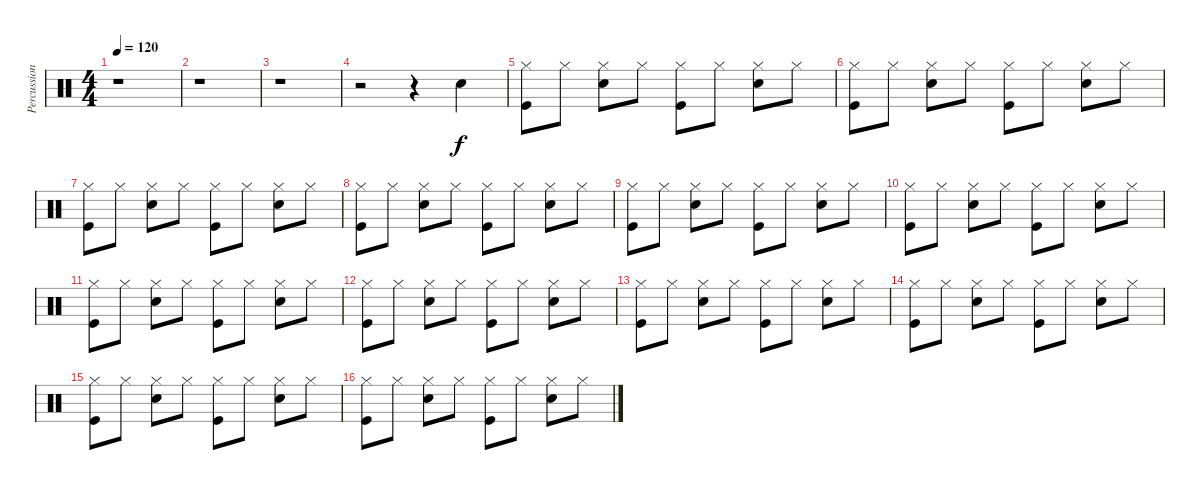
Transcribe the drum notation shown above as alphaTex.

\track ("Percussions" "Percussion") {instrument percussion}
\staff {score}
\articulation defaults
\ts (4 4)
\tempo 120
\clef neutral
\ks c
r.1{dy f} |
r.1 |
r.1 |
r.2 r.4 "Electric Snare (hit)".4 |
("Hi-Hat (closed)" "Kick (hit)").8 "Hi-Hat (closed)".8 ("Hi-Hat (closed)" "Electric Snare (hit)").8 "Hi-Hat (closed)".8 ("Hi-Hat (closed)" "Kick (hit)").8 "Hi-Hat (closed)".8 ("Hi-Hat (closed)" "Electric Snare (hit)").8 "Hi-Hat (closed)".8 |
("Hi-Hat (closed)" "Kick (hit)").8 "Hi-Hat (closed)".8 ("Hi-Hat (closed)" "Electric Snare (hit)").8 "Hi-Hat (closed)".8 ("Hi-Hat (closed)" "Kick (hit)").8 "Hi-Hat (closed)".8 ("Hi-Hat (closed)" "Electric Snare (hit)").8 "Hi-Hat (closed)".8 |
("Hi-Hat (closed)" "Kick (hit)").8 "Hi-Hat (closed)".8 ("Hi-Hat (closed)" "Electric Snare (hit)").8 "Hi-Hat (closed)".8 ("Hi-Hat (closed)" "Kick (hit)").8 "Hi-Hat (closed)".8 ("Hi-Hat (closed)" "Electric Snare (hit)").8 "Hi-Hat (closed)".8 |
("Hi-Hat (closed)" "Kick (hit)").8 "Hi-Hat (closed)".8 ("Hi-Hat (closed)" "Electric Snare (hit)").8 "Hi-Hat (closed)".8 ("Hi-Hat (closed)" "Kick (hit)").8 "Hi-Hat (closed)".8 ("Hi-Hat (closed)" "Electric Snare (hit)").8 "Hi-Hat (closed)".8 |
("Hi-Hat (closed)" "Kick (hit)").8 "Hi-Hat (closed)".8 ("Hi-Hat (closed)" "Electric Snare (hit)").8 "Hi-Hat (closed)".8 ("Hi-Hat (closed)" "Kick (hit)").8 "Hi-Hat (closed)".8 ("Hi-Hat (closed)" "Electric Snare (hit)").8 "Hi-Hat (closed)".8 |
("Hi-Hat (closed)" "Kick (hit)").8 "Hi-Hat (closed)".8 ("Hi-Hat (closed)" "Electric Snare (hit)").8 "Hi-Hat (closed)".8 ("Hi-Hat (closed)" "Kick (hit)").8 "Hi-Hat (closed)".8 ("Hi-Hat (closed)" "Electric Snare (hit)").8 "Hi-Hat (closed)".8 |
("Hi-Hat (closed)" "Kick (hit)").8 "Hi-Hat (closed)".8 ("Hi-Hat (closed)" "Electric Snare (hit)").8 "Hi-Hat (closed)".8 ("Hi-Hat (closed)" "Kick (hit)").8 "Hi-Hat (closed)".8 ("Hi-Hat (closed)" "Electric Snare (hit)").8 "Hi-Hat (closed)".8 |
("Hi-Hat (closed)" "Kick (hit)").8 "Hi-Hat (closed)".8 ("Hi-Hat (closed)" "Electric Snare (hit)").8 "Hi-Hat (closed)".8 ("Hi-Hat (closed)" "Kick (hit)").8 "Hi-Hat (closed)".8 ("Hi-Hat (closed)" "Electric Snare (hit)").8 "Hi-Hat (closed)".8 |
("Hi-Hat (closed)" "Kick (hit)").8 "Hi-Hat (closed)".8 ("Hi-Hat (closed)" "Electric Snare (hit)").8 "Hi-Hat (closed)".8 ("Hi-Hat (closed)" "Kick (hit)").8 "Hi-Hat (closed)".8 ("Hi-Hat (closed)" "Electric Snare (hit)").8 "Hi-Hat (closed)".8 |
("Hi-Hat (closed)" "Kick (hit)").8 "Hi-Hat (closed)".8 ("Hi-Hat (closed)" "Electric Snare (hit)").8 "Hi-Hat (closed)".8 ("Hi-Hat (closed)" "Kick (hit)").8 "Hi-Hat (closed)".8 ("Hi-Hat (closed)" "Electric Snare (hit)").8 "Hi-Hat (closed)".8 |
("Hi-Hat (closed)" "Kick (hit)").8 "Hi-Hat (closed)".8 ("Hi-Hat (closed)" "Electric Snare (hit)").8 "Hi-Hat (closed)".8 ("Hi-Hat (closed)" "Kick (hit)").8 "Hi-Hat (closed)".8 ("Hi-Hat (closed)" "Electric Snare (hit)").8 "Hi-Hat (closed)".8 |
("Hi-Hat (closed)" "Kick (hit)").8 "Hi-Hat (closed)".8 ("Hi-Hat (closed)" "Electric Snare (hit)").8 "Hi-Hat (closed)".8 ("Hi-Hat (closed)" "Kick (hit)").8 "Hi-Hat (closed)".8 ("Hi-Hat (closed)" "Electric Snare (hit)").8 "Hi-Hat (closed)".8
